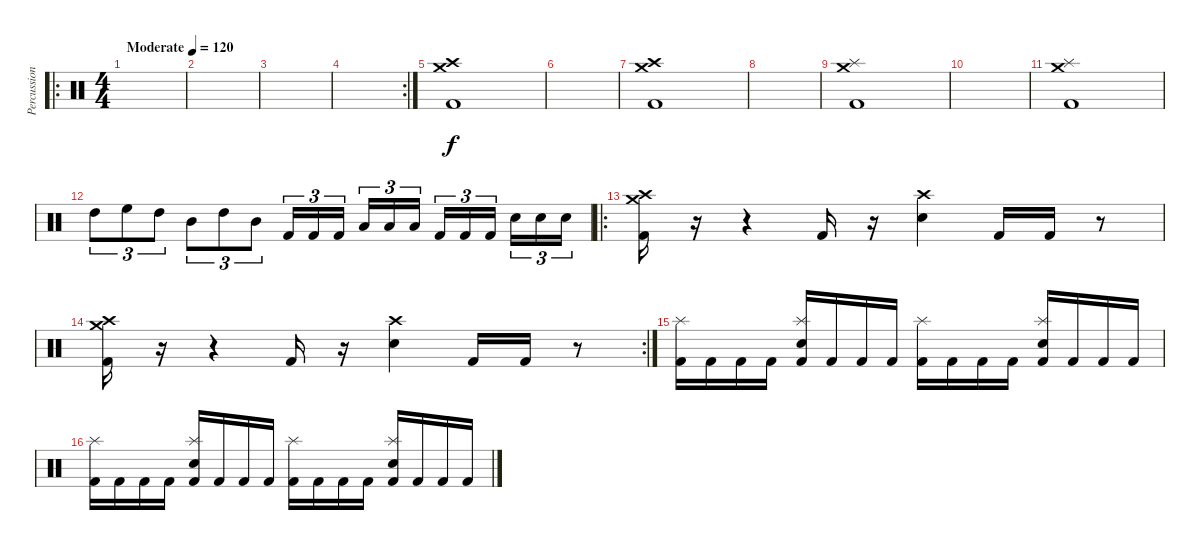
\track ("Percussion" "Percussion") {instrument percussion}
\staff {score}
\articulation defaults
\ro
\ts (4 4)
\tempo (120 "Moderate")
\clef neutral
\ks c
|
|
|
\rc 2
|
("Crash high (hit)" "Crash medium (hit)" "Kick (hit) 2").1 |
|
("Crash high (hit)" "Crash medium (hit)" "Kick (hit) 2").1 |
|
("Splash (hit)" "Crash medium (hit)" "Kick (hit) 2").1 |
|
("Splash (hit)" "Crash medium (hit)" "Kick (hit) 2").1 |
"High Tom (hit)".8{tu (3 2)} "High Floor Tom (hit)".8{tu (3 2)} "High Tom (hit)".8{tu (3 2)} "Mid Tom (hit)".8{tu (3 2)} "High Tom (hit)".8{tu (3 2)} "Mid Tom (hit)".8{tu (3 2)} "Kick (hit) 2".16{tu (3 2)} "Kick (hit) 2".16{tu (3 2)} "Kick (hit) 2".16{tu (3 2) beam splitsecondary} "Low Floor Tom (hit)".16{tu (3 2)} "Low Floor Tom (hit)".16{tu (3 2)} "Low Floor Tom (hit)".16{tu (3 2)} "Kick (hit) 2".16{tu (3 2)} "Kick (hit) 2".16{tu (3 2)} "Kick (hit) 2".16{tu (3 2) beam splitsecondary} "Snare (hit) 2".16{tu (3 2)} "Snare (hit) 2".16{tu (3 2)} "Snare (hit) 2".16{tu (3 2)} |
\ro
("Crash medium (hit)" "Crash high (hit)" "Kick (hit) 2").16 r.16 r.4 "Kick (hit) 2".16 r.16 ("Crash high (hit)" "Snare (hit) 2").4 "Kick (hit) 2".16 "Kick (hit) 2".16 r.8 |
\rc 2
("Crash medium (hit)" "Crash high (hit)" "Kick (hit) 2").16 r.16 r.4 "Kick (hit) 2".16 r.16 ("Crash high (hit)" "Snare (hit) 2").4 "Kick (hit) 2".16 "Kick (hit) 2".16 r.8 |
("Splash (hit)" "Kick (hit) 2").16 "Kick (hit) 2".16 "Kick (hit) 2".16 "Kick (hit) 2".16 ("Splash (hit)" "Snare (hit) 2" "Kick (hit) 2").16 "Kick (hit) 2".16 "Kick (hit) 2".16 "Kick (hit) 2".16 ("Splash (hit)" "Kick (hit) 2").16 "Kick (hit) 2".16 "Kick (hit) 2".16 "Kick (hit) 2".16 ("Splash (hit)" "Snare (hit) 2" "Kick (hit) 2").16 "Kick (hit) 2".16 "Kick (hit) 2".16 "Kick (hit) 2".16 |
("Splash (hit)" "Kick (hit) 2").16 "Kick (hit) 2".16 "Kick (hit) 2".16 "Kick (hit) 2".16 ("Splash (hit)" "Snare (hit) 2" "Kick (hit) 2").16 "Kick (hit) 2".16 "Kick (hit) 2".16 "Kick (hit) 2".16 ("Splash (hit)" "Kick (hit) 2").16 "Kick (hit) 2".16 "Kick (hit) 2".16 "Kick (hit) 2".16 ("Splash (hit)" "Snare (hit) 2" "Kick (hit) 2").16 "Kick (hit) 2".16 "Kick (hit) 2".16 "Kick (hit) 2".16
